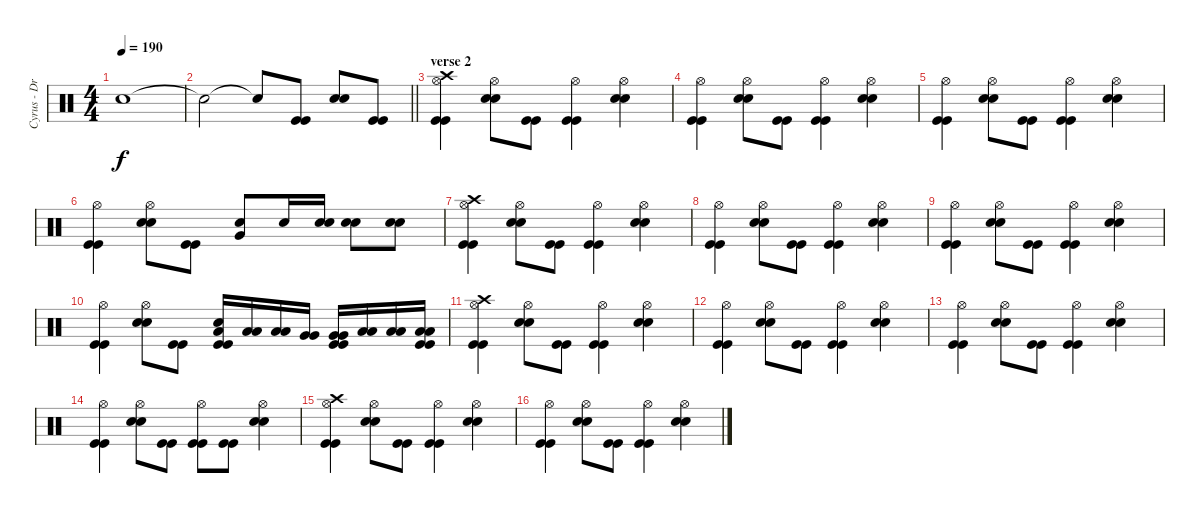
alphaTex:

\track ("Cyrus - Drums" "Cyrus - Dr") {instrument percussion}
\staff {score}
\articulation defaults
\ts (4 4)
\tempo 190
\clef neutral
\ks c "Snare (hit)"{t}.1{dy f}
|
\barLineRight lightlight "Snare (hit)"{t}.2 "Snare (hit)"{t}.8
("Kick (hit)" "Kick (hit)").8 ("Snare (hit) 2" "Snare (hit) 2").8 ("Kick (hit)" "Kick (hit)").8 |
\section ("" "verse 2")
("Kick (hit)" "Kick (hit)" "Hi-Hat (open)" "Crash high (hit)").4 ("Snare (hit) 2" "Snare (hit) 2" "Hi-Hat (open)").8 ("Kick (hit)" "Kick (hit)").8 ("Kick (hit)" "Kick (hit)" "Hi-Hat (open)").4 ("Snare (hit) 2" "Snare (hit) 2" "Hi-Hat (open)").4 |
("Kick (hit)" "Kick (hit)" "Hi-Hat (open)").4 ("Snare (hit) 2" "Snare (hit) 2" "Hi-Hat (open)").8 ("Kick (hit)" "Kick (hit)").8 ("Kick (hit)" "Kick (hit)" "Hi-Hat (open)").4 ("Snare (hit) 2" "Snare (hit) 2" "Hi-Hat (open)").4 |
("Kick (hit)" "Kick (hit)" "Hi-Hat (open)").4 ("Snare (hit) 2" "Snare (hit) 2" "Hi-Hat (open)").8 ("Kick (hit)" "Kick (hit)").8 ("Kick (hit)" "Kick (hit)" "Hi-Hat (open)").4 ("Snare (hit) 2" "Snare (hit) 2" "Hi-Hat (open)").4 |
("Kick (hit)" "Kick (hit)" "Hi-Hat (open)").4 ("Snare (hit) 2" "Snare (hit) 2" "Hi-Hat (open)").8 ("Kick (hit)" "Kick (hit)").8 ("Very Low Tom (hit)" "Snare (hit) 2").8 "Snare (hit) 2".16 ("Snare (hit) 2" "Snare (hit) 2").16 ("Snare (hit) 2" "Snare (hit) 2").8 ("Snare (hit) 2" "Snare (hit) 2").8 |
("Kick (hit)" "Kick (hit)" "Hi-Hat (open)" "Crash high (hit)").4 ("Snare (hit) 2" "Snare (hit) 2" "Hi-Hat (open)").8 ("Kick (hit)" "Kick (hit)").8 ("Kick (hit)" "Kick (hit)" "Hi-Hat (open)").4 ("Snare (hit) 2" "Snare (hit) 2" "Hi-Hat (open)").4 |
("Kick (hit)" "Kick (hit)" "Hi-Hat (open)").4 ("Snare (hit) 2" "Snare (hit) 2" "Hi-Hat (open)").8 ("Kick (hit)" "Kick (hit)").8 ("Kick (hit)" "Kick (hit)" "Hi-Hat (open)").4 ("Snare (hit) 2" "Snare (hit) 2" "Hi-Hat (open)").4 |
("Kick (hit)" "Kick (hit)" "Hi-Hat (open)").4 ("Snare (hit) 2" "Snare (hit) 2" "Hi-Hat (open)").8 ("Kick (hit)" "Kick (hit)").8 ("Kick (hit)" "Kick (hit)" "Hi-Hat (open)").4 ("Snare (hit) 2" "Snare (hit) 2" "Hi-Hat (open)").4 |
("Kick (hit)" "Kick (hit)" "Hi-Hat (open)").4 ("Snare (hit) 2" "Snare (hit) 2" "Hi-Hat (open)").8 ("Kick (hit)" "Kick (hit)").8 ("Kick (hit)" "Kick (hit)" "Snare (hit) 2" "Low Tom (hit)").16 ("Low Tom (hit)" "Low Tom (hit)").16 ("Low Tom (hit)" "Low Tom (hit)").16 ("Very Low Tom (hit)" "Very Low Tom (hit)").16 ("Kick (hit)" "Kick (hit)" "Very Low Tom (hit)" "Very Low Tom (hit)").16 ("Low Floor Tom (hit)" "Low Floor Tom (hit)").16 ("Low Floor Tom (hit)" "Low Floor Tom (hit)").16 ("Kick (hit)" "Kick (hit)" "Low Floor Tom (hit)" "Low Floor Tom (hit)").16 |
("Kick (hit)" "Kick (hit)" "Hi-Hat (open)" "Crash high (hit)").4 ("Snare (hit) 2" "Snare (hit) 2" "Hi-Hat (open)").8 ("Kick (hit)" "Kick (hit)").8 ("Kick (hit)" "Kick (hit)" "Hi-Hat (open)").4 ("Snare (hit) 2" "Snare (hit) 2" "Hi-Hat (open)").4 |
("Kick (hit)" "Kick (hit)" "Hi-Hat (open)").4 ("Snare (hit) 2" "Snare (hit) 2" "Hi-Hat (open)").8 ("Kick (hit)" "Kick (hit)").8 ("Kick (hit)" "Kick (hit)" "Hi-Hat (open)").4 ("Snare (hit) 2" "Snare (hit) 2" "Hi-Hat (open)").4 |
("Kick (hit)" "Kick (hit)" "Hi-Hat (open)").4 ("Snare (hit) 2" "Snare (hit) 2" "Hi-Hat (open)").8 ("Kick (hit)" "Kick (hit)").8 ("Kick (hit)" "Kick (hit)" "Hi-Hat (open)").4 ("Snare (hit) 2" "Snare (hit) 2" "Hi-Hat (open)").4 |
("Kick (hit)" "Kick (hit)" "Hi-Hat (open)").4 ("Snare (hit) 2" "Snare (hit) 2" "Hi-Hat (open)").8 ("Kick (hit)" "Kick (hit)").8 ("Kick (hit)" "Kick (hit)" "Hi-Hat (open)").8 ("Kick (hit)" "Kick (hit)").8 ("Snare (hit) 2" "Snare (hit) 2" "Hi-Hat (open)").4 |
("Kick (hit)" "Kick (hit)" "Hi-Hat (open)" "Crash high (hit)").4 ("Snare (hit) 2" "Snare (hit) 2" "Hi-Hat (open)").8 ("Kick (hit)" "Kick (hit)").8 ("Kick (hit)" "Kick (hit)" "Hi-Hat (open)").4 ("Snare (hit) 2" "Snare (hit) 2" "Hi-Hat (open)").4 |
("Kick (hit)" "Kick (hit)" "Hi-Hat (open)").4 ("Snare (hit) 2" "Snare (hit) 2" "Hi-Hat (open)").8 ("Kick (hit)" "Kick (hit)").8 ("Kick (hit)" "Kick (hit)" "Hi-Hat (open)").4 ("Snare (hit) 2" "Snare (hit) 2" "Hi-Hat (open)").4
